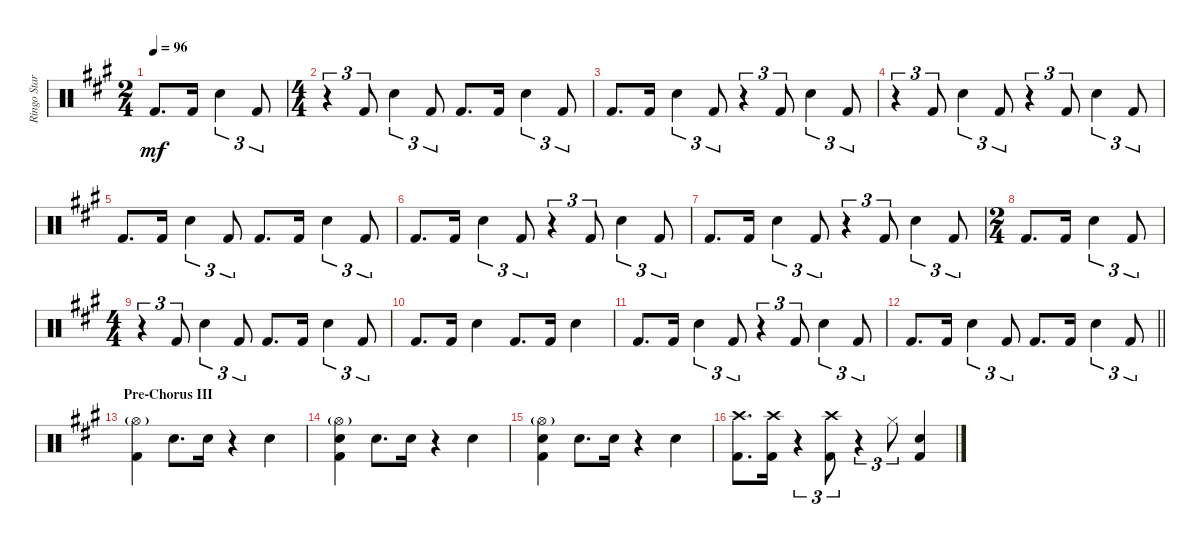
\track ("Ringo Starr - Drums" "Ringo Star") {instrument percussion}
\staff {score}
\articulation defaults
\ts (2 4)
\tempo 96
\clef neutral
\ks a "Kick (hit) 2".8{d dy mf} "Kick (hit) 2".16 "Snare (hit) 2".4{tu (3 2)} "Kick (hit) 2".8{tu (3 2)}
|
\ts (4 4)
r.4{tu (3 2)} "Kick (hit) 2".8{tu (3 2)} "Snare (hit) 2".4{tu (3 2)} "Kick (hit) 2".8{tu (3 2)} "Kick (hit) 2".8{d} "Kick (hit) 2".16 "Snare (hit) 2".4{tu (3 2)} "Kick (hit) 2".8{tu (3 2)} |
"Kick (hit) 2".8{d} "Kick (hit) 2".16 "Snare (hit) 2".4{tu (3 2)} "Kick (hit) 2".8{tu (3 2)} r.4{tu (3 2)} "Kick (hit) 2".8{tu (3 2)} "Snare (hit) 2".4{tu (3 2)} "Kick (hit) 2".8{tu (3 2)} |
r.4{tu (3 2)} "Kick (hit) 2".8{tu (3 2)} "Snare (hit) 2".4{tu (3 2)} "Kick (hit) 2".8{tu (3 2)} r.4{tu (3 2)} "Kick (hit) 2".8{tu (3 2)} "Snare (hit) 2".4{tu (3 2)} "Kick (hit) 2".8{tu (3 2)} |
"Kick (hit) 2".8{d} "Kick (hit) 2".16 "Snare (hit) 2".4{tu (3 2)} "Kick (hit) 2".8{tu (3 2)} "Kick (hit) 2".8{d} "Kick (hit) 2".16 "Snare (hit) 2".4{tu (3 2)} "Kick (hit) 2".8{tu (3 2)} |
"Kick (hit) 2".8{d} "Kick (hit) 2".16 "Snare (hit) 2".4{tu (3 2)} "Kick (hit) 2".8{tu (3 2)} r.4{tu (3 2)} "Kick (hit) 2".8{tu (3 2)} "Snare (hit) 2".4{tu (3 2)} "Kick (hit) 2".8{tu (3 2)} |
"Kick (hit) 2".8{d} "Kick (hit) 2".16 "Snare (hit) 2".4{tu (3 2)} "Kick (hit) 2".8{tu (3 2)} r.4{tu (3 2)} "Kick (hit) 2".8{tu (3 2)} "Snare (hit) 2".4{tu (3 2)} "Kick (hit) 2".8{tu (3 2)} |
\ts (2 4)
"Kick (hit) 2".8{d} "Kick (hit) 2".16 "Snare (hit) 2".4{tu (3 2)} "Kick (hit) 2".8{tu (3 2)} |
\ts (4 4)
r.4{tu (3 2)} "Kick (hit) 2".8{tu (3 2)} "Snare (hit) 2".4{tu (3 2)} "Kick (hit) 2".8{tu (3 2)} "Kick (hit) 2".8{d} "Kick (hit) 2".16 "Snare (hit) 2".4{tu (3 2)} "Kick (hit) 2".8{tu (3 2)} |
"Kick (hit) 2".8{d} "Kick (hit) 2".16 "Snare (hit) 2".4 "Kick (hit) 2".8{d} "Kick (hit) 2".16 "Snare (hit) 2".4 |
"Kick (hit) 2".8{d} "Kick (hit) 2".16 "Snare (hit) 2".4{tu (3 2)} "Kick (hit) 2".8{tu (3 2)} r.4{tu (3 2)} "Kick (hit) 2".8{tu (3 2)} "Snare (hit) 2".4{tu (3 2)} "Kick (hit) 2".8{tu (3 2)} |
\barLineRight lightlight "Kick (hit) 2".8{d} "Kick (hit) 2".16 "Snare (hit) 2".4{tu (3 2)} "Kick (hit) 2".8{tu (3 2)} "Kick (hit) 2".8{d} "Kick (hit) 2".16 "Snare (hit) 2".4{tu (3 2)} "Kick (hit) 2".8{tu (3 2)}
|
\section ("" "Pre-Chorus III")
("Hi-Hat (open)"{g} "Kick (hit) 2").4 "Snare (hit) 2".8{d} "Snare (hit) 2".16 r.4 "Snare (hit) 2".4 |
("Hi-Hat (open)"{g} "Snare (hit) 2" "Kick (hit) 2").4 "Snare (hit) 2".8{d} "Snare (hit) 2".16 r.4 "Snare (hit) 2".4 |
("Hi-Hat (open)"{g} "Snare (hit) 2" "Kick (hit) 2").4 "Snare (hit) 2".8{d} "Snare (hit) 2".16 r.4 "Snare (hit) 2".4 |
("Crash high (hit)" "Kick (hit) 2").8{d} ("Crash high (hit)" "Kick (hit) 2").16 r.4{tu (3 2)} ("Crash high (hit)" "Kick (hit) 2").8{tu (3 2)} r.4{tu (3 2)} "Hi-Hat (closed)".8{tu (3 2)} ("Snare (hit) 2" "Kick (hit) 2").4
